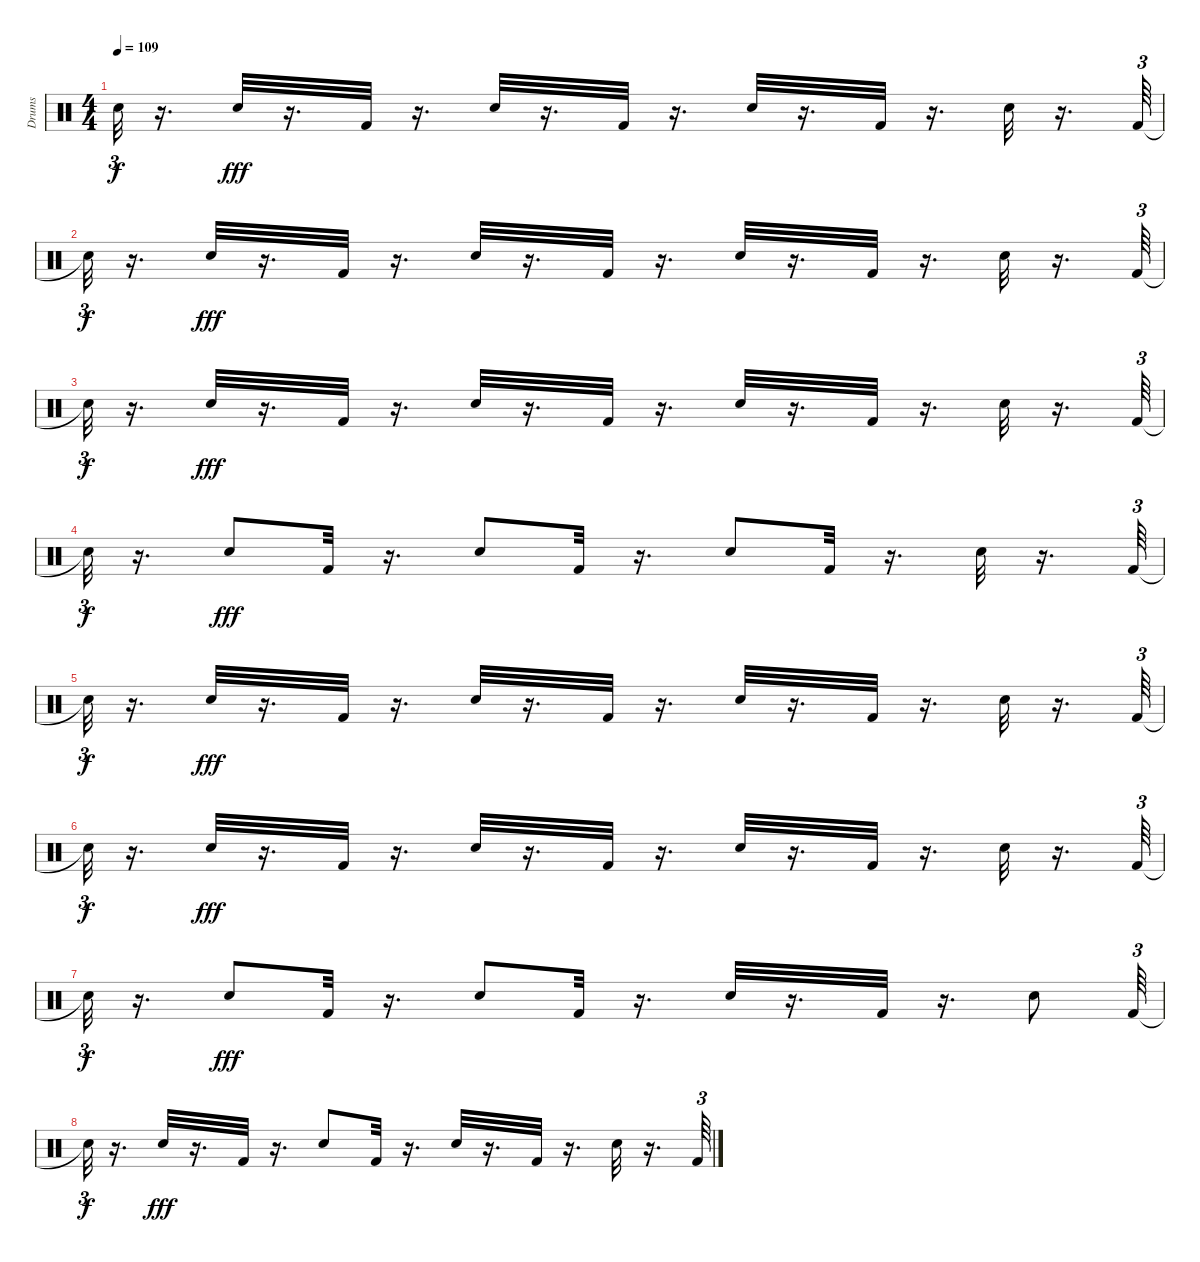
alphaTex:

\track ("Drums" "Drums") {instrument percussion}
\staff {score}
\articulation defaults
\ts (4 4)
\tempo 109
\clef neutral
\ks c "Snare (hit)"{t}.32{tu (3 2) dy f}
r.16{d} "Snare (hit) 2".32{dy fff} r.16{d} "Kick (hit) 2".32 r.16{d} "Snare (hit) 2".32 r.16{d} "Kick (hit) 2".32 r.16{d} "Snare (hit) 2".32 r.16{d} "Kick (hit) 2".32 r.16{d} "Snare (hit) 2".32 r.16{d} "Kick (hit) 2".64{tu (3 2)} |
"Snare (hit)"{t}.32{tu (3 2) dy f} r.16{d} "Snare (hit) 2".32{dy fff} r.16{d} "Kick (hit) 2".32 r.16{d} "Snare (hit) 2".32 r.16{d} "Kick (hit) 2".32 r.16{d} "Snare (hit) 2".32 r.16{d} "Kick (hit) 2".32 r.16{d} "Snare (hit) 2".32 r.16{d} "Kick (hit) 2".64{tu (3 2)} |
"Snare (hit)"{t}.32{tu (3 2) dy f} r.16{d} "Snare (hit) 2".32{dy fff} r.16{d} "Kick (hit) 2".32 r.16{d} "Snare (hit) 2".32 r.16{d} "Kick (hit) 2".32 r.16{d} "Snare (hit) 2".32 r.16{d} "Kick (hit) 2".32 r.16{d} "Snare (hit) 2".32 r.16{d} "Kick (hit) 2".64{tu (3 2)} |
"Snare (hit)"{t}.32{tu (3 2) dy f} r.16{d} "Snare (hit) 2".8{dy fff} "Kick (hit) 2".32 r.16{d} "Snare (hit) 2".8 "Kick (hit) 2".32 r.16{d} "Snare (hit) 2".8 "Kick (hit) 2".32 r.16{d} "Snare (hit) 2".32 r.16{d} "Kick (hit) 2".64{tu (3 2)} |
"Snare (hit)"{t}.32{tu (3 2) dy f} r.16{d} "Snare (hit) 2".32{dy fff} r.16{d} "Kick (hit) 2".32 r.16{d} "Snare (hit) 2".32 r.16{d} "Kick (hit) 2".32 r.16{d} "Snare (hit) 2".32 r.16{d} "Kick (hit) 2".32 r.16{d} "Snare (hit) 2".32 r.16{d} "Kick (hit) 2".64{tu (3 2)} |
"Snare (hit)"{t}.32{tu (3 2) dy f} r.16{d} "Snare (hit) 2".32{dy fff} r.16{d} "Kick (hit) 2".32 r.16{d} "Snare (hit) 2".32 r.16{d} "Kick (hit) 2".32 r.16{d} "Snare (hit) 2".32 r.16{d} "Kick (hit) 2".32 r.16{d} "Snare (hit) 2".32 r.16{d} "Kick (hit) 2".64{tu (3 2)} |
"Snare (hit)"{t}.32{tu (3 2) dy f} r.16{d} "Snare (hit) 2".8{dy fff} "Kick (hit) 2".32 r.16{d} "Snare (hit) 2".8 "Kick (hit) 2".32 r.16{d} "Snare (hit) 2".32 r.16{d} "Kick (hit) 2".32 r.16{d} "Snare (hit) 2".8 "Kick (hit) 2".64{tu (3 2)} |
"Snare (hit)"{t}.32{tu (3 2) dy f} r.16{d} "Snare (hit) 2".32{dy fff} r.16{d} "Kick (hit) 2".32 r.16{d} "Snare (hit) 2".8 "Kick (hit) 2".32 r.16{d} "Snare (hit) 2".32 r.16{d} "Kick (hit) 2".32 r.16{d} "Snare (hit) 2".32 r.16{d} "Kick (hit) 2".64{tu (3 2)}
